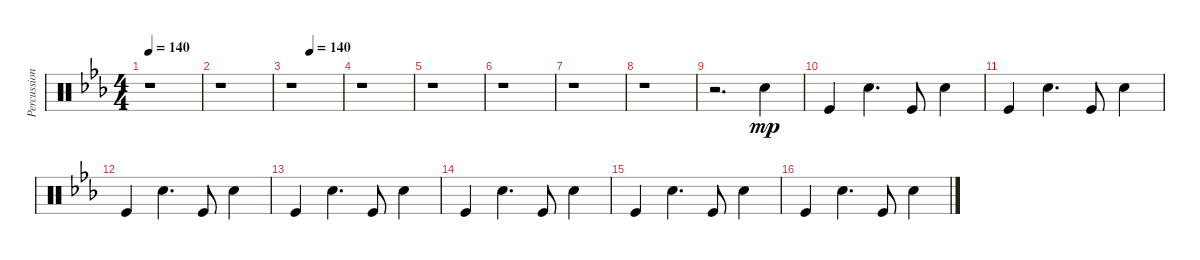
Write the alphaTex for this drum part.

\track ("Percussions" "Percussion") {instrument percussion}
\staff {score}
\articulation defaults
\ts (4 4)
\tempo 140
\clef neutral
\ks cminor
r.1{dy mp} |
r.1 |
\tempo (140 0.375)
r.1 |
r.1 |
r.1 |
r.1 |
r.1 |
r.1 |
r.2{d} "Snare (hit) 2".4 |
"Kick (hit)".4 "Snare (hit) 2".4{d} "Kick (hit)".8 "Snare (hit) 2".4 |
"Kick (hit)".4 "Snare (hit) 2".4{d} "Kick (hit)".8 "Snare (hit) 2".4 |
"Kick (hit)".4 "Snare (hit) 2".4{d} "Kick (hit)".8 "Snare (hit) 2".4 |
"Kick (hit)".4 "Snare (hit) 2".4{d} "Kick (hit)".8 "Snare (hit) 2".4 |
"Kick (hit)".4 "Snare (hit) 2".4{d} "Kick (hit)".8 "Snare (hit) 2".4 |
"Kick (hit)".4 "Snare (hit) 2".4{d} "Kick (hit)".8 "Snare (hit) 2".4 |
"Kick (hit)".4 "Snare (hit) 2".4{d} "Kick (hit)".8 "Snare (hit) 2".4
